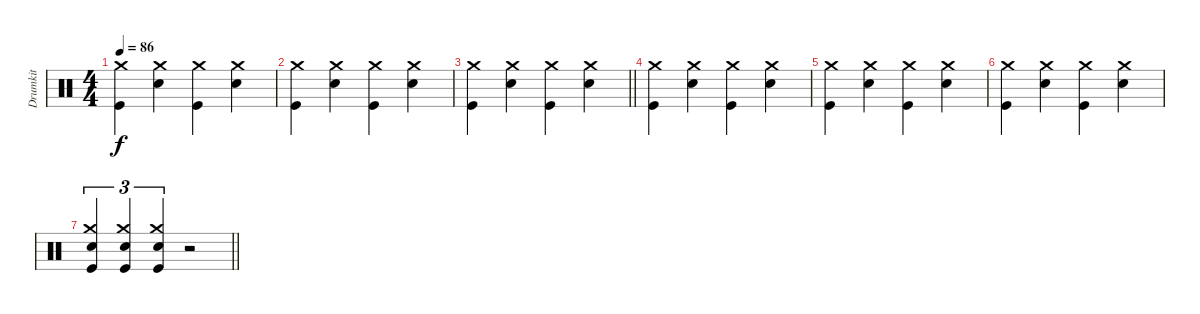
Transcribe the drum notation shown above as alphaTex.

\track ("Drumkit" "Drumkit") {instrument percussion}
\staff {score}
\articulation defaults
\ts (4 4)
\tempo 86
\clef neutral
\ks c
("Kick (hit)" "Crash medium (hit)").4{dy f} ("Snare (hit) 2" "Crash medium (hit)").4 ("Kick (hit)" "Crash medium (hit)").4 ("Snare (hit) 2" "Crash medium (hit)").4 |
("Kick (hit)" "Crash medium (hit)").4 ("Snare (hit) 2" "Crash medium (hit)").4 ("Kick (hit)" "Crash medium (hit)").4 ("Snare (hit) 2" "Crash medium (hit)").4 |
\barLineRight lightlight
("Kick (hit)" "Crash medium (hit)").4 ("Snare (hit) 2" "Crash medium (hit)").4 ("Kick (hit)" "Crash medium (hit)").4 ("Snare (hit) 2" "Crash medium (hit)").4 |
("Kick (hit)" "Crash medium (hit)").4 ("Snare (hit) 2" "Crash medium (hit)").4 ("Kick (hit)" "Crash medium (hit)").4 ("Snare (hit) 2" "Crash medium (hit)").4 |
("Kick (hit)" "Crash medium (hit)").4 ("Snare (hit) 2" "Crash medium (hit)").4 ("Kick (hit)" "Crash medium (hit)").4 ("Snare (hit) 2" "Crash medium (hit)").4 |
("Kick (hit)" "Crash medium (hit)").4 ("Snare (hit) 2" "Crash medium (hit)").4 ("Kick (hit)" "Crash medium (hit)").4 ("Snare (hit) 2" "Crash medium (hit)").4 |
\barLineRight lightlight
("Kick (hit)" "Crash medium (hit)" "Snare (hit) 2").4{tu (3 2)} ("Snare (hit) 2" "Crash medium (hit)" "Kick (hit)").4{tu (3 2)} ("Kick (hit)" "Crash medium (hit)" "Snare (hit) 2").4{tu (3 2)} r.2
